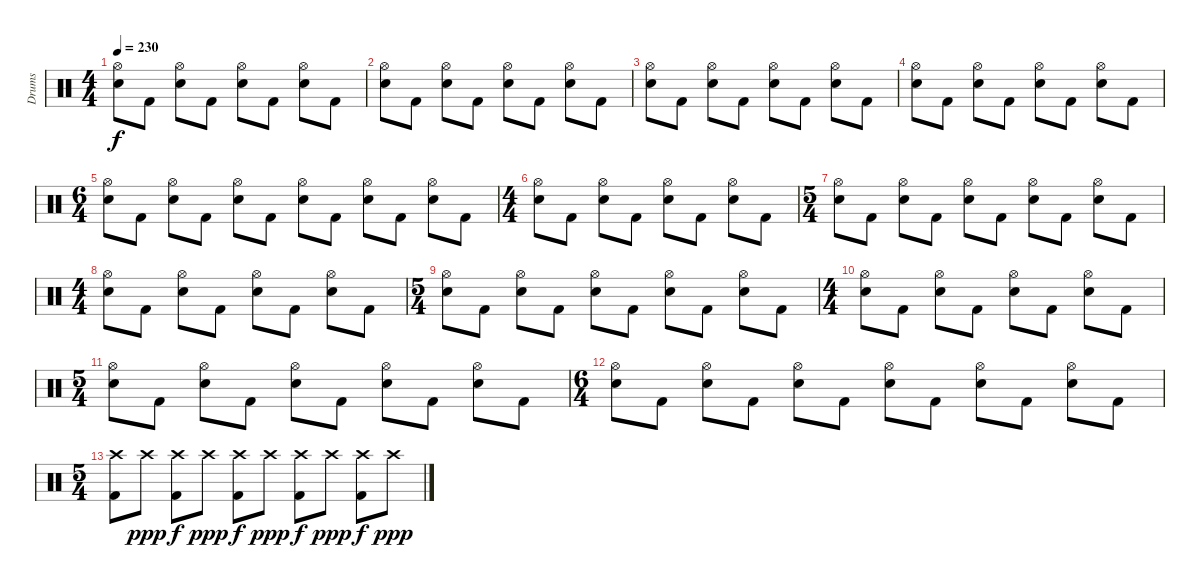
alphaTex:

\track ("Drums" "Drums") {instrument percussion}
\staff {score}
\articulation defaults
\ts (4 4)
\tempo 230
\clef neutral
\ks c
("Hi-Hat (open)" "Electric Snare (hit)").8{dy f} "Kick (hit) 2".8 ("Hi-Hat (open)" "Electric Snare (hit)").8 "Kick (hit) 2".8 ("Hi-Hat (open)" "Electric Snare (hit)").8 "Kick (hit) 2".8 ("Hi-Hat (open)" "Electric Snare (hit)").8 "Kick (hit) 2".8 |
("Hi-Hat (open)" "Electric Snare (hit)").8 "Kick (hit) 2".8 ("Hi-Hat (open)" "Electric Snare (hit)").8 "Kick (hit) 2".8 ("Hi-Hat (open)" "Electric Snare (hit)").8 "Kick (hit) 2".8 ("Hi-Hat (open)" "Electric Snare (hit)").8 "Kick (hit) 2".8 |
("Hi-Hat (open)" "Electric Snare (hit)").8 "Kick (hit) 2".8 ("Hi-Hat (open)" "Electric Snare (hit)").8 "Kick (hit) 2".8 ("Hi-Hat (open)" "Electric Snare (hit)").8 "Kick (hit) 2".8 ("Hi-Hat (open)" "Electric Snare (hit)").8 "Kick (hit) 2".8 |
("Hi-Hat (open)" "Electric Snare (hit)").8 "Kick (hit) 2".8 ("Hi-Hat (open)" "Electric Snare (hit)").8 "Kick (hit) 2".8 ("Hi-Hat (open)" "Electric Snare (hit)").8 "Kick (hit) 2".8 ("Hi-Hat (open)" "Electric Snare (hit)").8 "Kick (hit) 2".8 |
\ts (6 4)
("Hi-Hat (open)" "Electric Snare (hit)").8 "Kick (hit) 2".8 ("Hi-Hat (open)" "Electric Snare (hit)").8 "Kick (hit) 2".8 ("Hi-Hat (open)" "Electric Snare (hit)").8 "Kick (hit) 2".8 ("Hi-Hat (open)" "Electric Snare (hit)").8 "Kick (hit) 2".8 ("Hi-Hat (open)" "Electric Snare (hit)").8 "Kick (hit) 2".8 ("Hi-Hat (open)" "Electric Snare (hit)").8 "Kick (hit) 2".8 |
\ts (4 4)
("Hi-Hat (open)" "Electric Snare (hit)").8 "Kick (hit) 2".8 ("Hi-Hat (open)" "Electric Snare (hit)").8 "Kick (hit) 2".8 ("Hi-Hat (open)" "Electric Snare (hit)").8 "Kick (hit) 2".8 ("Hi-Hat (open)" "Electric Snare (hit)").8 "Kick (hit) 2".8 |
\ts (5 4)
("Hi-Hat (open)" "Electric Snare (hit)").8 "Kick (hit) 2".8 ("Hi-Hat (open)" "Electric Snare (hit)").8 "Kick (hit) 2".8 ("Hi-Hat (open)" "Electric Snare (hit)").8 "Kick (hit) 2".8 ("Hi-Hat (open)" "Electric Snare (hit)").8 "Kick (hit) 2".8 ("Hi-Hat (open)" "Electric Snare (hit)").8 "Kick (hit) 2".8 |
\ts (4 4)
("Hi-Hat (open)" "Electric Snare (hit)").8 "Kick (hit) 2".8 ("Hi-Hat (open)" "Electric Snare (hit)").8 "Kick (hit) 2".8 ("Hi-Hat (open)" "Electric Snare (hit)").8 "Kick (hit) 2".8 ("Hi-Hat (open)" "Electric Snare (hit)").8 "Kick (hit) 2".8 |
\ts (5 4)
("Hi-Hat (open)" "Electric Snare (hit)").8 "Kick (hit) 2".8 ("Hi-Hat (open)" "Electric Snare (hit)").8 "Kick (hit) 2".8 ("Hi-Hat (open)" "Electric Snare (hit)").8 "Kick (hit) 2".8 ("Hi-Hat (open)" "Electric Snare (hit)").8 "Kick (hit) 2".8 ("Hi-Hat (open)" "Electric Snare (hit)").8 "Kick (hit) 2".8 |
\ts (4 4)
("Hi-Hat (open)" "Electric Snare (hit)").8 "Kick (hit) 2".8 ("Hi-Hat (open)" "Electric Snare (hit)").8 "Kick (hit) 2".8 ("Hi-Hat (open)" "Electric Snare (hit)").8 "Kick (hit) 2".8 ("Hi-Hat (open)" "Electric Snare (hit)").8 "Kick (hit) 2".8 |
\ts (5 4)
("Hi-Hat (open)" "Electric Snare (hit)").8 "Kick (hit) 2".8 ("Hi-Hat (open)" "Electric Snare (hit)").8 "Kick (hit) 2".8 ("Hi-Hat (open)" "Electric Snare (hit)").8 "Kick (hit) 2".8 ("Hi-Hat (open)" "Electric Snare (hit)").8 "Kick (hit) 2".8 ("Hi-Hat (open)" "Electric Snare (hit)").8 "Kick (hit) 2".8 |
\ts (6 4)
("Hi-Hat (open)" "Electric Snare (hit)").8 "Kick (hit) 2".8 ("Hi-Hat (open)" "Electric Snare (hit)").8 "Kick (hit) 2".8 ("Hi-Hat (open)" "Electric Snare (hit)").8 "Kick (hit) 2".8 ("Hi-Hat (open)" "Electric Snare (hit)").8 "Kick (hit) 2".8 ("Hi-Hat (open)" "Electric Snare (hit)").8 "Kick (hit) 2".8 ("Hi-Hat (open)" "Electric Snare (hit)").8 "Kick (hit) 2".8 |
\ts (5 4)
("Crash high (hit)" "Kick (hit) 2").8 "Crash high (hit)".8{dy ppp} ("Crash high (hit)" "Kick (hit) 2").8{dy f} "Crash high (hit)".8{dy ppp} ("Crash high (hit)" "Kick (hit) 2").8{dy f} "Crash high (hit)".8{dy ppp} ("Crash high (hit)" "Kick (hit) 2").8{dy f} "Crash high (hit)".8{dy ppp} ("Crash high (hit)" "Kick (hit) 2").8{dy f} "Crash high (hit)".8{dy ppp}
